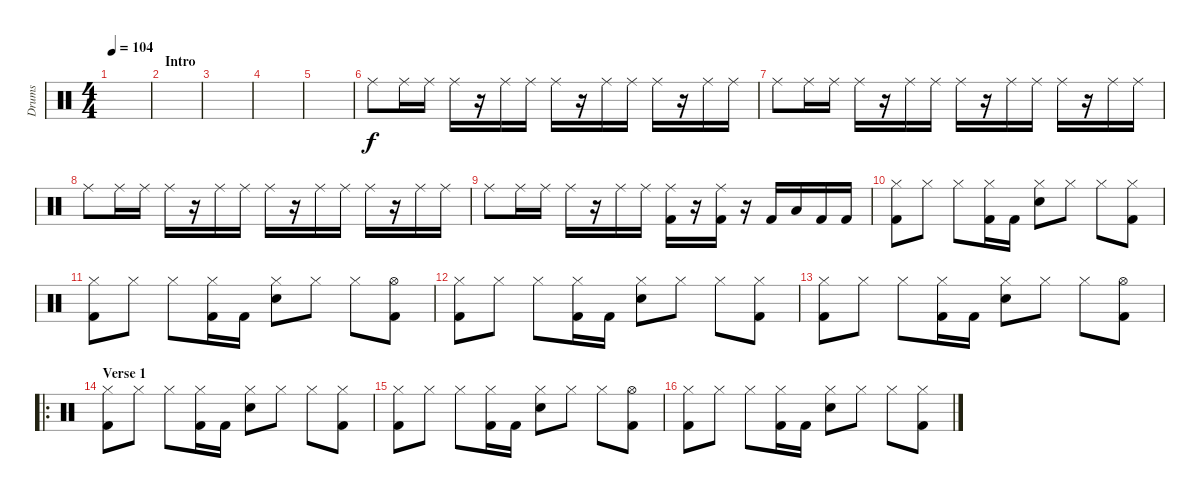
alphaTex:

\track ("Drums" "Drums") {instrument percussion}
\staff {score}
\articulation defaults
\ts (4 4)
\tempo 104
\clef neutral
\ks c
|
\section ("" "Intro")
|
|
|
|
"Ride (middle)".8 "Ride (middle)".16 "Ride (middle)".16 "Ride (middle)".16 r.16 "Ride (middle)".16 "Ride (middle)".16 "Ride (middle)".16 r.16 "Ride (middle)".16 "Ride (middle)".16 "Ride (middle)".16 r.16 "Ride (middle)".16 "Ride (middle)".16 |
"Ride (middle)".8 "Ride (middle)".16 "Ride (middle)".16 "Ride (middle)".16 r.16 "Ride (middle)".16 "Ride (middle)".16 "Ride (middle)".16 r.16 "Ride (middle)".16 "Ride (middle)".16 "Ride (middle)".16 r.16 "Ride (middle)".16 "Ride (middle)".16 |
"Ride (middle)".8 "Ride (middle)".16 "Ride (middle)".16 "Ride (middle)".16 r.16 "Ride (middle)".16 "Ride (middle)".16 "Ride (middle)".16 r.16 "Ride (middle)".16 "Ride (middle)".16 "Ride (middle)".16 r.16 "Ride (middle)".16 "Ride (middle)".16 |
"Ride (middle)".8 "Ride (middle)".16 "Ride (middle)".16 "Ride (middle)".16 r.16 "Ride (middle)".16 "Ride (middle)".16 ("Ride (middle)" "Kick (hit) 2").16 r.16 ("Ride (middle)" "Kick (hit) 2").16 r.16 "Kick (hit) 2".16 "Low Tom (hit)".16 "Kick (hit) 2".16 "Kick (hit) 2".16 |
("Hi-Hat (closed)" "Kick (hit) 2").8 "Hi-Hat (closed)".8 "Hi-Hat (closed)".8 ("Hi-Hat (closed)" "Kick (hit) 2").16 "Kick (hit) 2".16 ("Hi-Hat (closed)" "Snare (hit) 2").8 "Hi-Hat (closed)".8 "Hi-Hat (closed)".8 ("Hi-Hat (closed)" "Kick (hit) 2").8 |
("Hi-Hat (closed)" "Kick (hit) 2").8 "Hi-Hat (closed)".8 "Hi-Hat (closed)".8 ("Hi-Hat (closed)" "Kick (hit) 2").16 "Kick (hit) 2".16 ("Hi-Hat (closed)" "Snare (hit) 2").8 "Hi-Hat (closed)".8 "Hi-Hat (closed)".8 ("Hi-Hat (open)" "Kick (hit) 2").8 |
("Hi-Hat (closed)" "Kick (hit) 2").8 "Hi-Hat (closed)".8 "Hi-Hat (closed)".8 ("Hi-Hat (closed)" "Kick (hit) 2").16 "Kick (hit) 2".16 ("Hi-Hat (closed)" "Snare (hit) 2").8 "Hi-Hat (closed)".8 "Hi-Hat (closed)".8 ("Hi-Hat (closed)" "Kick (hit) 2").8 |
("Hi-Hat (closed)" "Kick (hit) 2").8 "Hi-Hat (closed)".8 "Hi-Hat (closed)".8 ("Hi-Hat (closed)" "Kick (hit) 2").16 "Kick (hit) 2".16 ("Hi-Hat (closed)" "Snare (hit) 2").8 "Hi-Hat (closed)".8 "Hi-Hat (closed)".8 ("Hi-Hat (open)" "Kick (hit) 2").8 |
\ro
\section ("" "Verse 1")
("Hi-Hat (closed)" "Kick (hit) 2").8 "Hi-Hat (closed)".8 "Hi-Hat (closed)".8 ("Hi-Hat (closed)" "Kick (hit) 2").16 "Kick (hit) 2".16 ("Hi-Hat (closed)" "Snare (hit) 2").8 "Hi-Hat (closed)".8 "Hi-Hat (closed)".8 ("Hi-Hat (closed)" "Kick (hit) 2").8 |
("Hi-Hat (closed)" "Kick (hit) 2").8 "Hi-Hat (closed)".8 "Hi-Hat (closed)".8 ("Hi-Hat (closed)" "Kick (hit) 2").16 "Kick (hit) 2".16 ("Hi-Hat (closed)" "Snare (hit) 2").8 "Hi-Hat (closed)".8 "Hi-Hat (closed)".8 ("Hi-Hat (open)" "Kick (hit) 2").8 |
("Hi-Hat (closed)" "Kick (hit) 2").8 "Hi-Hat (closed)".8 "Hi-Hat (closed)".8 ("Hi-Hat (closed)" "Kick (hit) 2").16 "Kick (hit) 2".16 ("Hi-Hat (closed)" "Snare (hit) 2").8 "Hi-Hat (closed)".8 "Hi-Hat (closed)".8 ("Hi-Hat (closed)" "Kick (hit) 2").8
